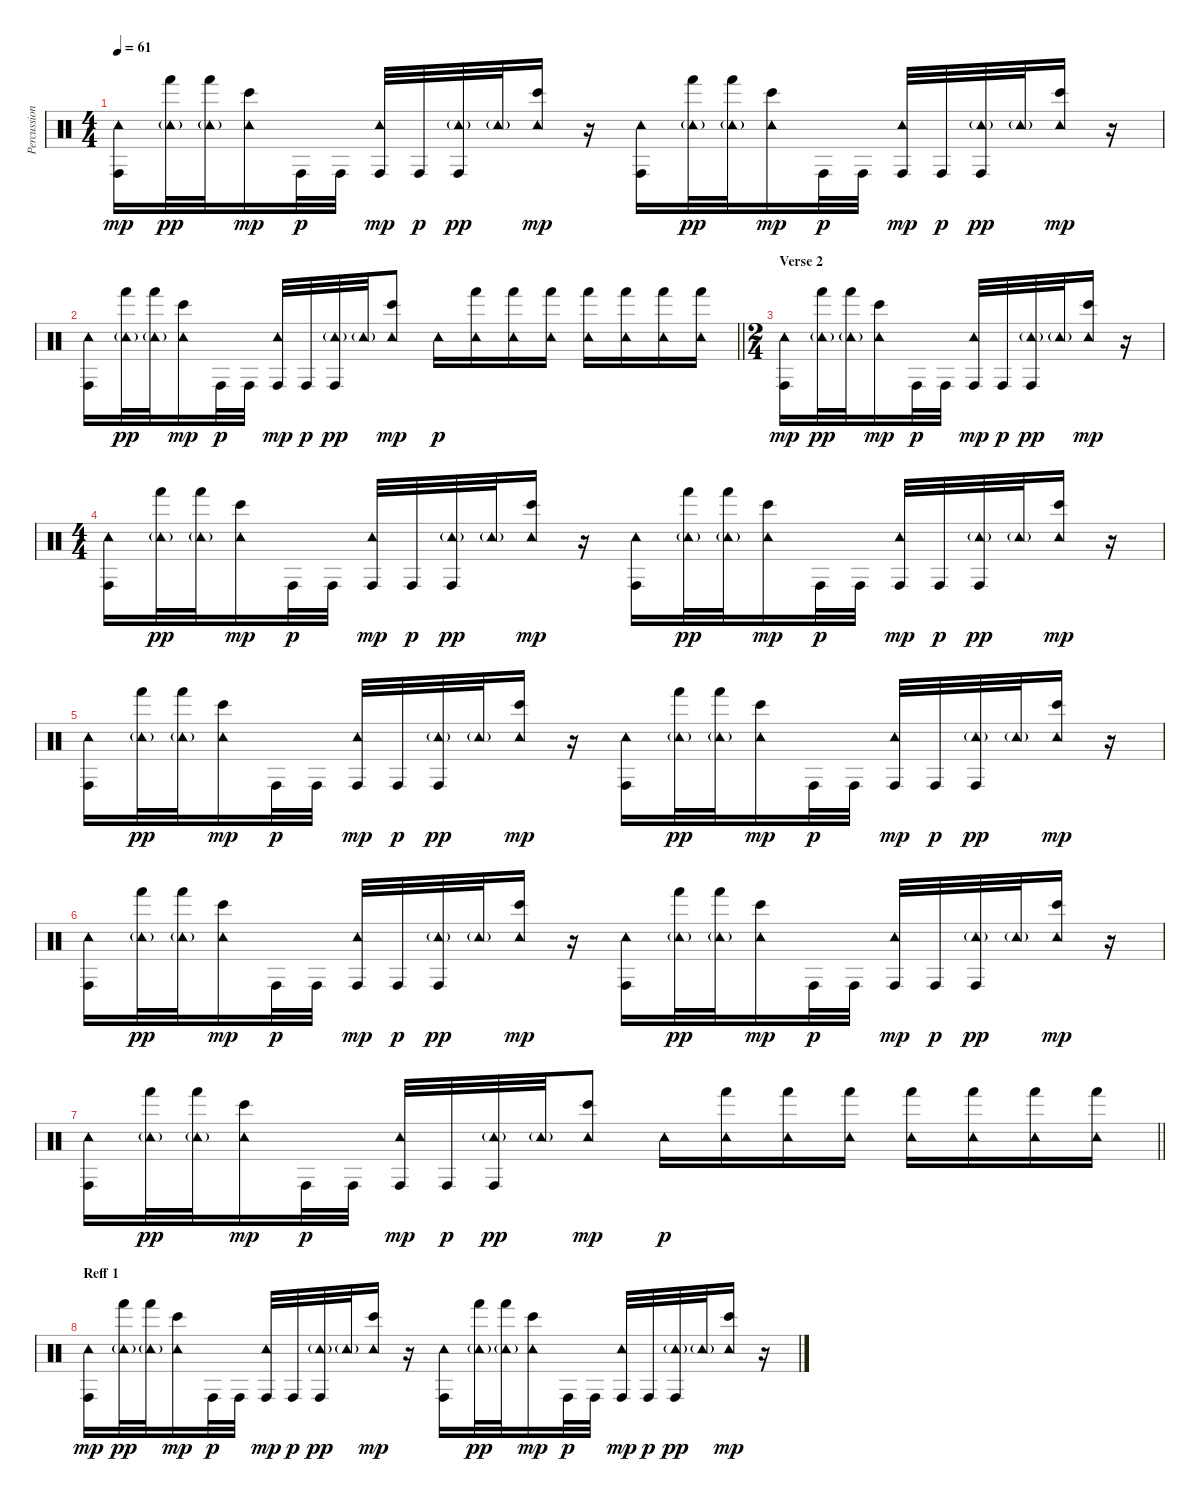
\track ("Percussion 2" "Percussion") {instrument percussion}
\staff {score}
\articulation defaults
\ts (4 4)
\tempo 61
\clef neutral
\ks c
("Conga high (hit)" "Tambourine (hit)").16{dy mp} ("Hand (hit)" "Tambourine (hit)"{g}).32{dy pp} ("Hand (hit)" "Tambourine (hit)"{g}).32 ("Bongo High (hit)" "Tambourine (hit)").16{dy mp} "Conga high (hit)".32{dy p} "Conga high (hit)".32 ("Conga high (hit)" "Tambourine (hit)").32{dy mp} "Conga high (hit)".32{dy p} ("Conga high (hit)" "Tambourine (hit)"{g}).32{dy pp} "Tambourine (hit)"{g}.32 ("Bongo High (hit)" "Tambourine (hit)").16{dy mp} r.16 ("Conga high (hit)" "Tambourine (hit)").16 ("Hand (hit)" "Tambourine (hit)"{g}).32{dy pp} ("Hand (hit)" "Tambourine (hit)"{g}).32 ("Bongo High (hit)" "Tambourine (hit)").16{dy mp} "Conga high (hit)".32{dy p} "Conga high (hit)".32 ("Conga high (hit)" "Tambourine (hit)").32{dy mp} "Conga high (hit)".32{dy p} ("Conga high (hit)" "Tambourine (hit)"{g}).32{dy pp} "Tambourine (hit)"{g}.32 ("Bongo High (hit)" "Tambourine (hit)").16{dy mp} r.16 |
\barLineRight lightlight
("Conga high (hit)" "Tambourine (hit)").16 ("Hand (hit)" "Tambourine (hit)"{g}).32{dy pp} ("Hand (hit)" "Tambourine (hit)"{g}).32 ("Bongo High (hit)" "Tambourine (hit)").16{dy mp} "Conga high (hit)".32{dy p} "Conga high (hit)".32 ("Conga high (hit)" "Tambourine (hit)").32{dy mp} "Conga high (hit)".32{dy p} ("Conga high (hit)" "Tambourine (hit)"{g}).32{dy pp} "Tambourine (hit)"{g}.32 ("Bongo High (hit)" "Tambourine (hit)").8{dy mp} "Tambourine (hit)".16{dy p} ("Hand (hit)" "Tambourine (hit)").16 ("Hand (hit)" "Tambourine (hit)").16 ("Hand (hit)" "Tambourine (hit)").16 ("Hand (hit)" "Tambourine (hit)").16 ("Hand (hit)" "Tambourine (hit)").16 ("Hand (hit)" "Tambourine (hit)").16 ("Hand (hit)" "Tambourine (hit)").16 |
\ts (2 4)
\section ("" "Verse 2")
("Conga high (hit)" "Tambourine (hit)").16{dy mp} ("Hand (hit)" "Tambourine (hit)"{g}).32{dy pp} ("Hand (hit)" "Tambourine (hit)"{g}).32 ("Bongo High (hit)" "Tambourine (hit)").16{dy mp} "Conga high (hit)".32{dy p} "Conga high (hit)".32 ("Conga high (hit)" "Tambourine (hit)").32{dy mp} "Conga high (hit)".32{dy p} ("Conga high (hit)" "Tambourine (hit)"{g}).32{dy pp} "Tambourine (hit)"{g}.32 ("Bongo High (hit)" "Tambourine (hit)").16{dy mp} r.16 |
\ts (4 4)
("Conga high (hit)" "Tambourine (hit)").16 ("Hand (hit)" "Tambourine (hit)"{g}).32{dy pp} ("Hand (hit)" "Tambourine (hit)"{g}).32 ("Bongo High (hit)" "Tambourine (hit)").16{dy mp} "Conga high (hit)".32{dy p} "Conga high (hit)".32 ("Conga high (hit)" "Tambourine (hit)").32{dy mp} "Conga high (hit)".32{dy p} ("Conga high (hit)" "Tambourine (hit)"{g}).32{dy pp} "Tambourine (hit)"{g}.32 ("Bongo High (hit)" "Tambourine (hit)").16{dy mp} r.16 ("Conga high (hit)" "Tambourine (hit)").16 ("Hand (hit)" "Tambourine (hit)"{g}).32{dy pp} ("Hand (hit)" "Tambourine (hit)"{g}).32 ("Bongo High (hit)" "Tambourine (hit)").16{dy mp} "Conga high (hit)".32{dy p} "Conga high (hit)".32 ("Conga high (hit)" "Tambourine (hit)").32{dy mp} "Conga high (hit)".32{dy p} ("Conga high (hit)" "Tambourine (hit)"{g}).32{dy pp} "Tambourine (hit)"{g}.32 ("Bongo High (hit)" "Tambourine (hit)").16{dy mp} r.16 |
("Conga high (hit)" "Tambourine (hit)").16 ("Hand (hit)" "Tambourine (hit)"{g}).32{dy pp} ("Hand (hit)" "Tambourine (hit)"{g}).32 ("Bongo High (hit)" "Tambourine (hit)").16{dy mp} "Conga high (hit)".32{dy p} "Conga high (hit)".32 ("Conga high (hit)" "Tambourine (hit)").32{dy mp} "Conga high (hit)".32{dy p} ("Conga high (hit)" "Tambourine (hit)"{g}).32{dy pp} "Tambourine (hit)"{g}.32 ("Bongo High (hit)" "Tambourine (hit)").16{dy mp} r.16 ("Conga high (hit)" "Tambourine (hit)").16 ("Hand (hit)" "Tambourine (hit)"{g}).32{dy pp} ("Hand (hit)" "Tambourine (hit)"{g}).32 ("Bongo High (hit)" "Tambourine (hit)").16{dy mp} "Conga high (hit)".32{dy p} "Conga high (hit)".32 ("Conga high (hit)" "Tambourine (hit)").32{dy mp} "Conga high (hit)".32{dy p} ("Conga high (hit)" "Tambourine (hit)"{g}).32{dy pp} "Tambourine (hit)"{g}.32 ("Bongo High (hit)" "Tambourine (hit)").16{dy mp} r.16 |
("Conga high (hit)" "Tambourine (hit)").16 ("Hand (hit)" "Tambourine (hit)"{g}).32{dy pp} ("Hand (hit)" "Tambourine (hit)"{g}).32 ("Bongo High (hit)" "Tambourine (hit)").16{dy mp} "Conga high (hit)".32{dy p} "Conga high (hit)".32 ("Conga high (hit)" "Tambourine (hit)").32{dy mp} "Conga high (hit)".32{dy p} ("Conga high (hit)" "Tambourine (hit)"{g}).32{dy pp} "Tambourine (hit)"{g}.32 ("Bongo High (hit)" "Tambourine (hit)").16{dy mp} r.16 ("Conga high (hit)" "Tambourine (hit)").16 ("Hand (hit)" "Tambourine (hit)"{g}).32{dy pp} ("Hand (hit)" "Tambourine (hit)"{g}).32 ("Bongo High (hit)" "Tambourine (hit)").16{dy mp} "Conga high (hit)".32{dy p} "Conga high (hit)".32 ("Conga high (hit)" "Tambourine (hit)").32{dy mp} "Conga high (hit)".32{dy p} ("Conga high (hit)" "Tambourine (hit)"{g}).32{dy pp} "Tambourine (hit)"{g}.32 ("Bongo High (hit)" "Tambourine (hit)").16{dy mp} r.16 |
\barLineRight lightlight
("Conga high (hit)" "Tambourine (hit)").16 ("Hand (hit)" "Tambourine (hit)"{g}).32{dy pp} ("Hand (hit)" "Tambourine (hit)"{g}).32 ("Bongo High (hit)" "Tambourine (hit)").16{dy mp} "Conga high (hit)".32{dy p} "Conga high (hit)".32 ("Conga high (hit)" "Tambourine (hit)").32{dy mp} "Conga high (hit)".32{dy p} ("Conga high (hit)" "Tambourine (hit)"{g}).32{dy pp} "Tambourine (hit)"{g}.32 ("Bongo High (hit)" "Tambourine (hit)").8{dy mp} "Tambourine (hit)".16{dy p} ("Hand (hit)" "Tambourine (hit)").16 ("Hand (hit)" "Tambourine (hit)").16 ("Hand (hit)" "Tambourine (hit)").16 ("Hand (hit)" "Tambourine (hit)").16 ("Hand (hit)" "Tambourine (hit)").16 ("Hand (hit)" "Tambourine (hit)").16 ("Hand (hit)" "Tambourine (hit)").16 |
\section ("" "Reff 1")
("Conga high (hit)" "Tambourine (hit)").16{dy mp} ("Hand (hit)" "Tambourine (hit)"{g}).32{dy pp} ("Hand (hit)" "Tambourine (hit)"{g}).32 ("Bongo High (hit)" "Tambourine (hit)").16{dy mp} "Conga high (hit)".32{dy p} "Conga high (hit)".32 ("Conga high (hit)" "Tambourine (hit)").32{dy mp} "Conga high (hit)".32{dy p} ("Conga high (hit)" "Tambourine (hit)"{g}).32{dy pp} "Tambourine (hit)"{g}.32 ("Bongo High (hit)" "Tambourine (hit)").16{dy mp} r.16 ("Conga high (hit)" "Tambourine (hit)").16 ("Hand (hit)" "Tambourine (hit)"{g}).32{dy pp} ("Hand (hit)" "Tambourine (hit)"{g}).32 ("Bongo High (hit)" "Tambourine (hit)").16{dy mp} "Conga high (hit)".32{dy p} "Conga high (hit)".32 ("Conga high (hit)" "Tambourine (hit)").32{dy mp} "Conga high (hit)".32{dy p} ("Conga high (hit)" "Tambourine (hit)"{g}).32{dy pp} "Tambourine (hit)"{g}.32 ("Bongo High (hit)" "Tambourine (hit)").16{dy mp} r.16
